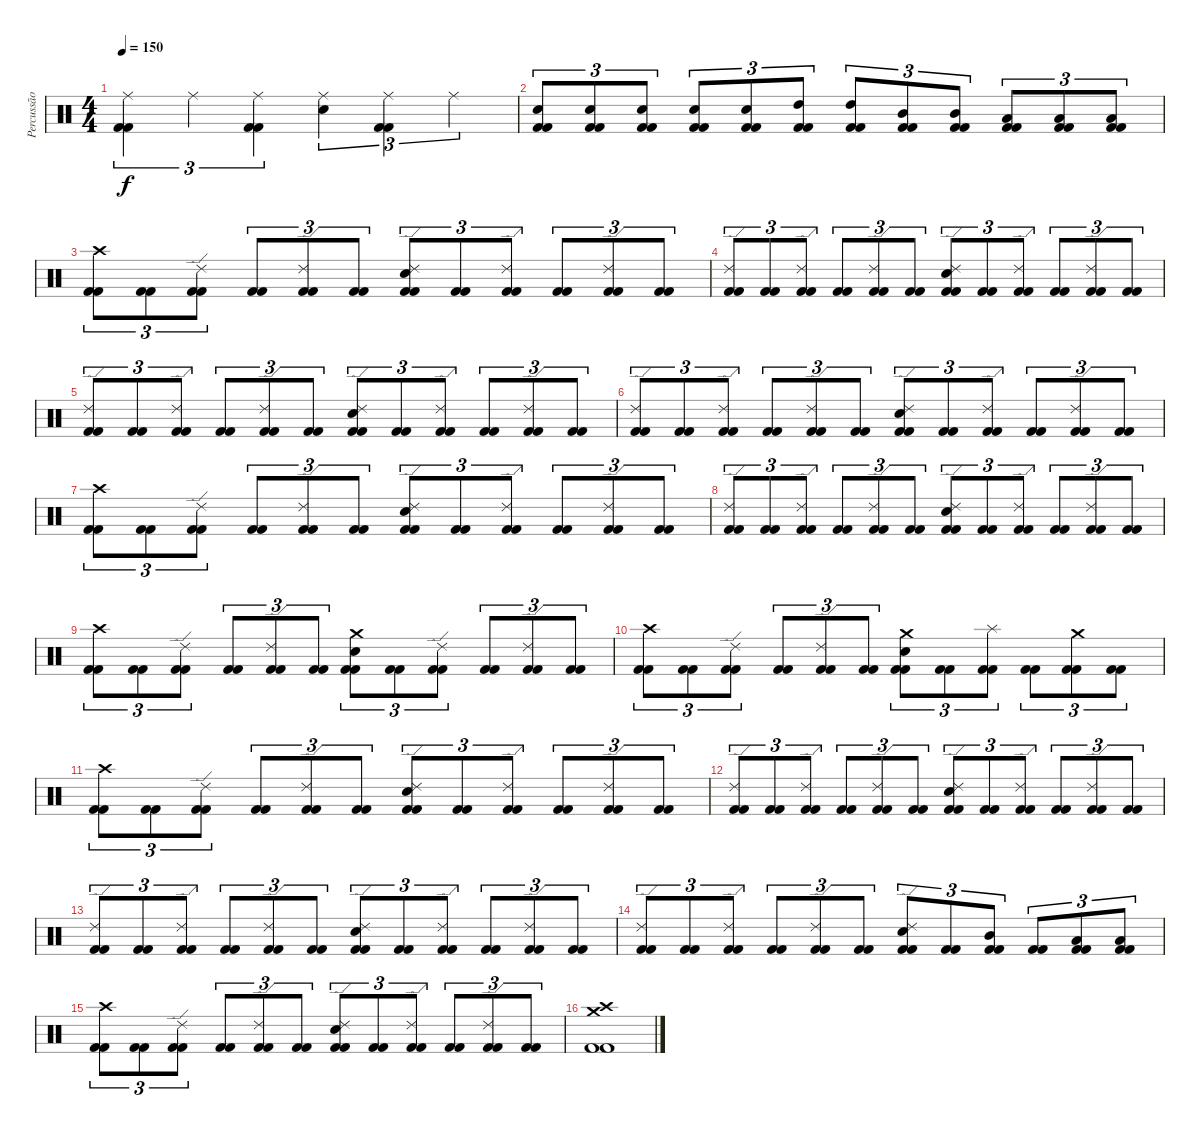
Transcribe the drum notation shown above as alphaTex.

\track ("Percussão" "Percussão") {instrument percussion}
\staff {score}
\articulation defaults
\ts (4 4)
\tempo 150
\clef neutral
\ks c
("Ride (middle)" "Kick (hit) 2" "Kick (hit) 2").4{tu (3 2) dy f} "Ride (middle)".4{tu (3 2)} ("Ride (middle)" "Kick (hit) 2" "Kick (hit) 2").4{tu (3 2)} ("Ride (middle)" "Electric Snare (hit)").4{tu (3 2)} ("Ride (middle)" "Kick (hit) 2" "Kick (hit) 2").4{tu (3 2)} "Ride (middle)".4{tu (3 2)} |
("Electric Snare (hit)" "Kick (hit) 2" "Kick (hit) 2").8{tu (3 2)} ("Electric Snare (hit)" "Kick (hit) 2" "Kick (hit) 2").8{tu (3 2)} ("Electric Snare (hit)" "Kick (hit) 2" "Kick (hit) 2").8{tu (3 2)} ("Electric Snare (hit)" "Kick (hit) 2" "Kick (hit) 2").8{tu (3 2)} ("Electric Snare (hit)" "Kick (hit) 2" "Kick (hit) 2").8{tu (3 2)} ("High Tom (hit)" "Kick (hit) 2" "Kick (hit) 2").8{tu (3 2)} ("High Tom (hit)" "Kick (hit) 2" "Kick (hit) 2").8{tu (3 2)} ("Mid Tom (hit)" "Kick (hit) 2" "Kick (hit) 2").8{tu (3 2)} ("Mid Tom (hit)" "Kick (hit) 2" "Kick (hit) 2").8{tu (3 2)} ("Low Tom (hit)" "Kick (hit) 2" "Kick (hit) 2").8{tu (3 2)} ("Low Tom (hit)" "Kick (hit) 2" "Kick (hit) 2").8{tu (3 2)} ("Low Tom (hit)" "Kick (hit) 2" "Kick (hit) 2").8{tu (3 2)} |
("Crash high (hit)" "Kick (hit) 2" "Kick (hit) 2").8{tu (3 2)} ("Kick (hit) 2" "Kick (hit) 2").8{tu (3 2)} ("Ride (edge) 2" "Kick (hit) 2" "Kick (hit) 2").8{tu (3 2)} ("Kick (hit) 2" "Kick (hit) 2").8{tu (3 2)} ("Ride (edge) 2" "Kick (hit) 2" "Kick (hit) 2").8{tu (3 2)} ("Kick (hit) 2" "Kick (hit) 2").8{tu (3 2)} ("Ride (edge) 2" "Electric Snare (hit)" "Kick (hit) 2" "Kick (hit) 2").8{tu (3 2)} ("Kick (hit) 2" "Kick (hit) 2").8{tu (3 2)} ("Ride (edge) 2" "Kick (hit) 2" "Kick (hit) 2").8{tu (3 2)} ("Kick (hit) 2" "Kick (hit) 2").8{tu (3 2)} ("Ride (edge) 2" "Kick (hit) 2" "Kick (hit) 2").8{tu (3 2)} ("Kick (hit) 2" "Kick (hit) 2").8{tu (3 2)} |
("Ride (edge) 2" "Kick (hit) 2" "Kick (hit) 2").8{tu (3 2)} ("Kick (hit) 2" "Kick (hit) 2").8{tu (3 2)} ("Ride (edge) 2" "Kick (hit) 2" "Kick (hit) 2").8{tu (3 2)} ("Kick (hit) 2" "Kick (hit) 2").8{tu (3 2)} ("Ride (edge) 2" "Kick (hit) 2" "Kick (hit) 2").8{tu (3 2)} ("Kick (hit) 2" "Kick (hit) 2").8{tu (3 2)} ("Ride (edge) 2" "Electric Snare (hit)" "Kick (hit) 2" "Kick (hit) 2").8{tu (3 2)} ("Kick (hit) 2" "Kick (hit) 2").8{tu (3 2)} ("Ride (edge) 2" "Kick (hit) 2" "Kick (hit) 2").8{tu (3 2)} ("Kick (hit) 2" "Kick (hit) 2").8{tu (3 2)} ("Ride (edge) 2" "Kick (hit) 2" "Kick (hit) 2").8{tu (3 2)} ("Kick (hit) 2" "Kick (hit) 2").8{tu (3 2)} |
("Ride (edge) 2" "Kick (hit) 2" "Kick (hit) 2").8{tu (3 2)} ("Kick (hit) 2" "Kick (hit) 2").8{tu (3 2)} ("Ride (edge) 2" "Kick (hit) 2" "Kick (hit) 2").8{tu (3 2)} ("Kick (hit) 2" "Kick (hit) 2").8{tu (3 2)} ("Ride (edge) 2" "Kick (hit) 2" "Kick (hit) 2").8{tu (3 2)} ("Kick (hit) 2" "Kick (hit) 2").8{tu (3 2)} ("Ride (edge) 2" "Electric Snare (hit)" "Kick (hit) 2" "Kick (hit) 2").8{tu (3 2)} ("Kick (hit) 2" "Kick (hit) 2").8{tu (3 2)} ("Ride (edge) 2" "Kick (hit) 2" "Kick (hit) 2").8{tu (3 2)} ("Kick (hit) 2" "Kick (hit) 2").8{tu (3 2)} ("Ride (edge) 2" "Kick (hit) 2" "Kick (hit) 2").8{tu (3 2)} ("Kick (hit) 2" "Kick (hit) 2").8{tu (3 2)} |
("Ride (edge) 2" "Kick (hit) 2" "Kick (hit) 2").8{tu (3 2)} ("Kick (hit) 2" "Kick (hit) 2").8{tu (3 2)} ("Ride (edge) 2" "Kick (hit) 2" "Kick (hit) 2").8{tu (3 2)} ("Kick (hit) 2" "Kick (hit) 2").8{tu (3 2)} ("Ride (edge) 2" "Kick (hit) 2" "Kick (hit) 2").8{tu (3 2)} ("Kick (hit) 2" "Kick (hit) 2").8{tu (3 2)} ("Ride (edge) 2" "Electric Snare (hit)" "Kick (hit) 2" "Kick (hit) 2").8{tu (3 2)} ("Kick (hit) 2" "Kick (hit) 2").8{tu (3 2)} ("Ride (edge) 2" "Kick (hit) 2" "Kick (hit) 2").8{tu (3 2)} ("Kick (hit) 2" "Kick (hit) 2").8{tu (3 2)} ("Ride (edge) 2" "Kick (hit) 2" "Kick (hit) 2").8{tu (3 2)} ("Kick (hit) 2" "Kick (hit) 2").8{tu (3 2)} |
("Crash high (hit)" "Kick (hit) 2" "Kick (hit) 2").8{tu (3 2)} ("Kick (hit) 2" "Kick (hit) 2").8{tu (3 2)} ("Ride (edge) 2" "Kick (hit) 2" "Kick (hit) 2").8{tu (3 2)} ("Kick (hit) 2" "Kick (hit) 2").8{tu (3 2)} ("Ride (edge) 2" "Kick (hit) 2" "Kick (hit) 2").8{tu (3 2)} ("Kick (hit) 2" "Kick (hit) 2").8{tu (3 2)} ("Ride (edge) 2" "Electric Snare (hit)" "Kick (hit) 2" "Kick (hit) 2").8{tu (3 2)} ("Kick (hit) 2" "Kick (hit) 2").8{tu (3 2)} ("Ride (edge) 2" "Kick (hit) 2" "Kick (hit) 2").8{tu (3 2)} ("Kick (hit) 2" "Kick (hit) 2").8{tu (3 2)} ("Ride (edge) 2" "Kick (hit) 2" "Kick (hit) 2").8{tu (3 2)} ("Kick (hit) 2" "Kick (hit) 2").8{tu (3 2)} |
("Ride (edge) 2" "Kick (hit) 2" "Kick (hit) 2").8{tu (3 2)} ("Kick (hit) 2" "Kick (hit) 2").8{tu (3 2)} ("Ride (edge) 2" "Kick (hit) 2" "Kick (hit) 2").8{tu (3 2)} ("Kick (hit) 2" "Kick (hit) 2").8{tu (3 2)} ("Ride (edge) 2" "Kick (hit) 2" "Kick (hit) 2").8{tu (3 2)} ("Kick (hit) 2" "Kick (hit) 2").8{tu (3 2)} ("Ride (edge) 2" "Electric Snare (hit)" "Kick (hit) 2" "Kick (hit) 2").8{tu (3 2)} ("Kick (hit) 2" "Kick (hit) 2").8{tu (3 2)} ("Ride (edge) 2" "Kick (hit) 2" "Kick (hit) 2").8{tu (3 2)} ("Kick (hit) 2" "Kick (hit) 2").8{tu (3 2)} ("Ride (edge) 2" "Kick (hit) 2" "Kick (hit) 2").8{tu (3 2)} ("Kick (hit) 2" "Kick (hit) 2").8{tu (3 2)} |
("Crash high (hit)" "Kick (hit) 2" "Kick (hit) 2").8{tu (3 2)} ("Kick (hit) 2" "Kick (hit) 2").8{tu (3 2)} ("Ride (edge) 2" "Kick (hit) 2" "Kick (hit) 2").8{tu (3 2)} ("Kick (hit) 2" "Kick (hit) 2").8{tu (3 2)} ("Ride (edge) 2" "Kick (hit) 2" "Kick (hit) 2").8{tu (3 2)} ("Kick (hit) 2" "Kick (hit) 2").8{tu (3 2)} ("Crash medium (hit)" "Electric Snare (hit)" "Kick (hit) 2" "Kick (hit) 2").8{tu (3 2)} ("Kick (hit) 2" "Kick (hit) 2").8{tu (3 2)} ("Ride (edge) 2" "Kick (hit) 2" "Kick (hit) 2").8{tu (3 2)} ("Kick (hit) 2" "Kick (hit) 2").8{tu (3 2)} ("Ride (edge) 2" "Kick (hit) 2" "Kick (hit) 2").8{tu (3 2)} ("Kick (hit) 2" "Kick (hit) 2").8{tu (3 2)} |
("Crash high (hit)" "Kick (hit) 2" "Kick (hit) 2").8{tu (3 2)} ("Kick (hit) 2" "Kick (hit) 2").8{tu (3 2)} ("Ride (edge) 2" "Kick (hit) 2" "Kick (hit) 2").8{tu (3 2)} ("Kick (hit) 2" "Kick (hit) 2").8{tu (3 2)} ("Ride (edge) 2" "Kick (hit) 2" "Kick (hit) 2").8{tu (3 2)} ("Kick (hit) 2" "Kick (hit) 2").8{tu (3 2)} ("Crash medium (hit)" "Electric Snare (hit)" "Kick (hit) 2" "Kick (hit) 2").8{tu (3 2)} ("Kick (hit) 2" "Kick (hit) 2").8{tu (3 2)} ("Splash (hit)" "Kick (hit) 2" "Kick (hit) 2").8{tu (3 2)} ("Kick (hit) 2" "Kick (hit) 2").8{tu (3 2)} ("Crash medium (hit)" "Kick (hit) 2" "Kick (hit) 2").8{tu (3 2)} ("Kick (hit) 2" "Kick (hit) 2").8{tu (3 2)} |
("Crash high (hit)" "Kick (hit) 2" "Kick (hit) 2").8{tu (3 2)} ("Kick (hit) 2" "Kick (hit) 2").8{tu (3 2)} ("Ride (edge) 2" "Kick (hit) 2" "Kick (hit) 2").8{tu (3 2)} ("Kick (hit) 2" "Kick (hit) 2").8{tu (3 2)} ("Ride (edge) 2" "Kick (hit) 2" "Kick (hit) 2").8{tu (3 2)} ("Kick (hit) 2" "Kick (hit) 2").8{tu (3 2)} ("Ride (edge) 2" "Electric Snare (hit)" "Kick (hit) 2" "Kick (hit) 2").8{tu (3 2)} ("Kick (hit) 2" "Kick (hit) 2").8{tu (3 2)} ("Ride (edge) 2" "Kick (hit) 2" "Kick (hit) 2").8{tu (3 2)} ("Kick (hit) 2" "Kick (hit) 2").8{tu (3 2)} ("Ride (edge) 2" "Kick (hit) 2" "Kick (hit) 2").8{tu (3 2)} ("Kick (hit) 2" "Kick (hit) 2").8{tu (3 2)} |
("Ride (edge) 2" "Kick (hit) 2" "Kick (hit) 2").8{tu (3 2)} ("Kick (hit) 2" "Kick (hit) 2").8{tu (3 2)} ("Ride (edge) 2" "Kick (hit) 2" "Kick (hit) 2").8{tu (3 2)} ("Kick (hit) 2" "Kick (hit) 2").8{tu (3 2)} ("Ride (edge) 2" "Kick (hit) 2" "Kick (hit) 2").8{tu (3 2)} ("Kick (hit) 2" "Kick (hit) 2").8{tu (3 2)} ("Ride (edge) 2" "Electric Snare (hit)" "Kick (hit) 2" "Kick (hit) 2").8{tu (3 2)} ("Kick (hit) 2" "Kick (hit) 2").8{tu (3 2)} ("Ride (edge) 2" "Kick (hit) 2" "Kick (hit) 2").8{tu (3 2)} ("Kick (hit) 2" "Kick (hit) 2").8{tu (3 2)} ("Ride (edge) 2" "Kick (hit) 2" "Kick (hit) 2").8{tu (3 2)} ("Kick (hit) 2" "Kick (hit) 2").8{tu (3 2)} |
("Ride (edge) 2" "Kick (hit) 2" "Kick (hit) 2").8{tu (3 2)} ("Kick (hit) 2" "Kick (hit) 2").8{tu (3 2)} ("Ride (edge) 2" "Kick (hit) 2" "Kick (hit) 2").8{tu (3 2)} ("Kick (hit) 2" "Kick (hit) 2").8{tu (3 2)} ("Ride (edge) 2" "Kick (hit) 2" "Kick (hit) 2").8{tu (3 2)} ("Kick (hit) 2" "Kick (hit) 2").8{tu (3 2)} ("Ride (edge) 2" "Electric Snare (hit)" "Kick (hit) 2" "Kick (hit) 2").8{tu (3 2)} ("Kick (hit) 2" "Kick (hit) 2").8{tu (3 2)} ("Ride (edge) 2" "Kick (hit) 2" "Kick (hit) 2").8{tu (3 2)} ("Kick (hit) 2" "Kick (hit) 2").8{tu (3 2)} ("Ride (edge) 2" "Kick (hit) 2" "Kick (hit) 2").8{tu (3 2)} ("Kick (hit) 2" "Kick (hit) 2").8{tu (3 2)} |
("Ride (edge) 2" "Kick (hit) 2" "Kick (hit) 2").8{tu (3 2)} ("Kick (hit) 2" "Kick (hit) 2").8{tu (3 2)} ("Ride (edge) 2" "Kick (hit) 2" "Kick (hit) 2").8{tu (3 2)} ("Kick (hit) 2" "Kick (hit) 2").8{tu (3 2)} ("Ride (edge) 2" "Kick (hit) 2" "Kick (hit) 2").8{tu (3 2)} ("Kick (hit) 2" "Kick (hit) 2").8{tu (3 2)} ("Ride (edge) 2" "Electric Snare (hit)" "Kick (hit) 2" "Kick (hit) 2").8{tu (3 2)} ("Kick (hit) 2" "Kick (hit) 2").8{tu (3 2)} ("Mid Tom (hit)" "Kick (hit) 2" "Kick (hit) 2").8{tu (3 2)} ("Kick (hit) 2" "Kick (hit) 2").8{tu (3 2)} ("Low Tom (hit)" "Kick (hit) 2" "Kick (hit) 2").8{tu (3 2)} ("Low Tom (hit)" "Kick (hit) 2" "Kick (hit) 2").8{tu (3 2)} |
("Crash high (hit)" "Kick (hit) 2" "Kick (hit) 2").8{tu (3 2)} ("Kick (hit) 2" "Kick (hit) 2").8{tu (3 2)} ("Ride (edge) 2" "Kick (hit) 2" "Kick (hit) 2").8{tu (3 2)} ("Kick (hit) 2" "Kick (hit) 2").8{tu (3 2)} ("Ride (edge) 2" "Kick (hit) 2" "Kick (hit) 2").8{tu (3 2)} ("Kick (hit) 2" "Kick (hit) 2").8{tu (3 2)} ("Ride (edge) 2" "Electric Snare (hit)" "Kick (hit) 2" "Kick (hit) 2").8{tu (3 2)} ("Kick (hit) 2" "Kick (hit) 2").8{tu (3 2)} ("Ride (edge) 2" "Kick (hit) 2" "Kick (hit) 2").8{tu (3 2)} ("Kick (hit) 2" "Kick (hit) 2").8{tu (3 2)} ("Ride (edge) 2" "Kick (hit) 2" "Kick (hit) 2").8{tu (3 2)} ("Kick (hit) 2" "Kick (hit) 2").8{tu (3 2)} |
("Crash high (hit)" "Crash medium (hit)" "Kick (hit) 2" "Kick (hit) 2").1
